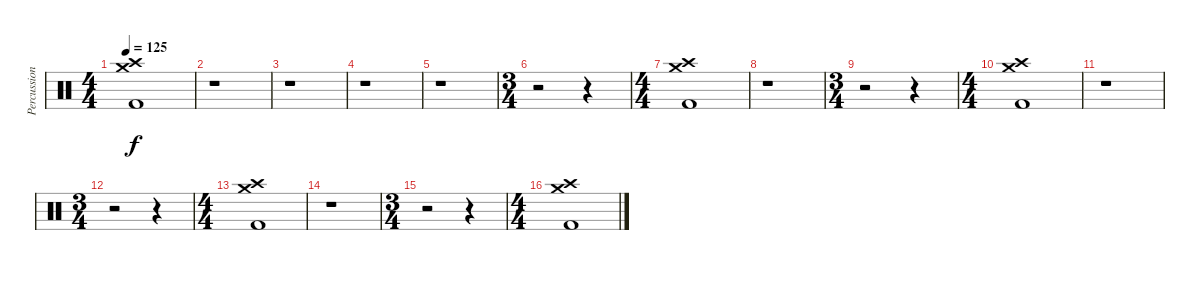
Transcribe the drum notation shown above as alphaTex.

\track ("Percussion" "Percussion") {instrument percussion}
\staff {score}
\articulation defaults
\ts (4 4)
\tempo 125
\clef neutral
\ks c
("Crash high (hit)" "Crash medium (hit)" "Kick (hit) 2").1{dy f} |
r.1 |
r.1 |
r.1 |
r.1 |
\ts (3 4)
r.2 r.4 |
\ts (4 4)
("Crash high (hit)" "Crash medium (hit)" "Kick (hit) 2").1 |
r.1 |
\ts (3 4)
r.2 r.4 |
\ts (4 4)
("Crash high (hit)" "Crash medium (hit)" "Kick (hit) 2").1 |
r.1 |
\ts (3 4)
r.2 r.4 |
\ts (4 4)
("Crash high (hit)" "Crash medium (hit)" "Kick (hit) 2").1 |
r.1 |
\ts (3 4)
r.2 r.4 |
\ts (4 4)
("Crash high (hit)" "Crash medium (hit)" "Kick (hit) 2").1
